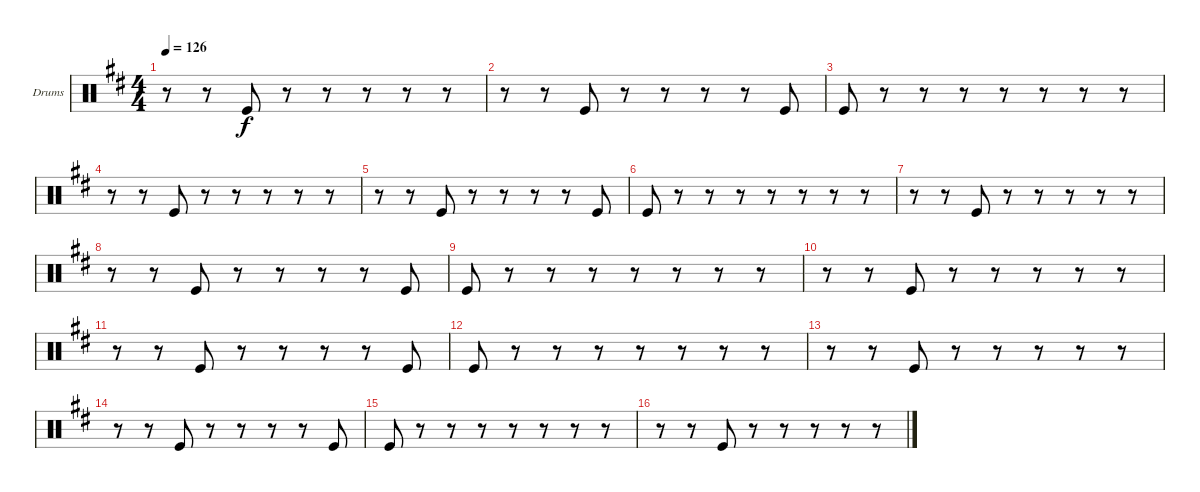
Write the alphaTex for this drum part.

\bracketExtendMode groupsimilarinstruments
\firstSystemTrackNameOrientation horizontal
\otherSystemsTrackNameOrientation horizontal
\track ("Drumkit" "Drums") {instrument percussion}
\staff {score}
\articulation defaults
\ts (4 4)
\tempo 126
\clef neutral
\ks d
r.8{dy f} r.8 "Kick (hit)".8 r.8 r.8 r.8 r.8 r.8 |
r.8 r.8 "Kick (hit)".8 r.8 r.8 r.8 r.8 "Kick (hit)".8 |
"Kick (hit)".8 r.8 r.8 r.8 r.8 r.8 r.8 r.8 |
r.8 r.8 "Kick (hit)".8 r.8 r.8 r.8 r.8 r.8 |
r.8 r.8 "Kick (hit)".8 r.8 r.8 r.8 r.8 "Kick (hit)".8 |
"Kick (hit)".8 r.8 r.8 r.8 r.8 r.8 r.8 r.8 |
\scale
0.394843 r.8 r.8 "Kick (hit)".8 r.8 r.8 r.8 r.8 r.8 |
\scale
0.335324 r.8 r.8 "Kick (hit)".8 r.8 r.8 r.8 r.8 "Kick (hit)".8 |
\scale
0.270011 "Kick (hit)".8 r.8 r.8 r.8 r.8 r.8 r.8 r.8 |
r.8 r.8 "Kick (hit)".8 r.8 r.8 r.8 r.8 r.8 |
r.8 r.8 "Kick (hit)".8 r.8 r.8 r.8 r.8 "Kick (hit)".8 |
\scale
0.416216 "Kick (hit)".8 r.8 r.8 r.8 r.8 r.8 r.8 r.8 |
\scale
0.274797 r.8 r.8 "Kick (hit)".8 r.8 r.8 r.8 r.8 r.8 |
\scale
0.308826 r.8 r.8 "Kick (hit)".8 r.8 r.8 r.8 r.8 "Kick (hit)".8 |
"Kick (hit)".8 r.8 r.8 r.8 r.8 r.8 r.8 r.8 |
r.8 r.8 "Kick (hit)".8 r.8 r.8 r.8 r.8 r.8
